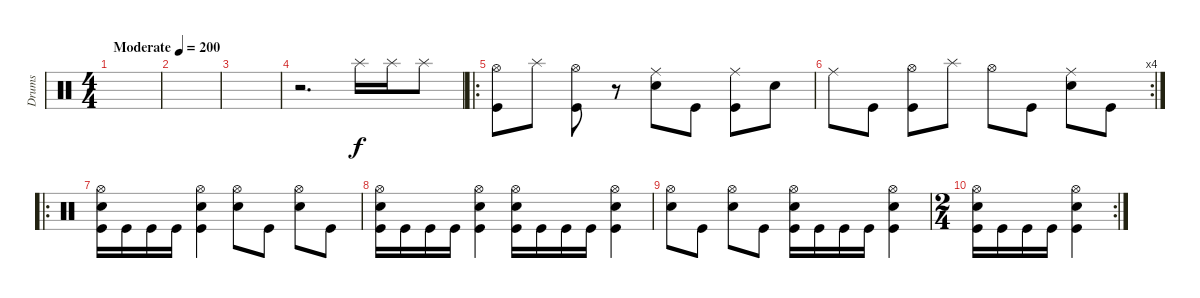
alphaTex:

\track ("Drums" "Drums") {instrument percussion}
\staff {score}
\articulation defaults
\ts (4 4)
\tempo (200 "Moderate")
\clef neutral
\ks c
|
|
|
r.2{d} "Splash (hit)".16 "Splash (hit)".16 "Splash (hit)".8 |
\ro
("Hi-Hat (open)" "Kick (hit)").8 "Splash (hit)".8 ("Hi-Hat (open)" "Kick (hit)").8 r.8 ("Ride (middle)" "Snare (hit) 2").8 "Kick (hit)".8 ("Ride (middle)" "Kick (hit)").8 "Snare (hit) 2".8 |
\rc 4 "Ride (middle)".8 "Kick (hit)".8
("Hi-Hat (open)" "Kick (hit)").8 "Splash (hit)".8 "Hi-Hat (open)".8 "Kick (hit)".8 ("Ride (middle)" "Snare (hit) 2").8 "Kick (hit)".8 |
\ro
("Hi-Hat (open)" "Snare (hit) 2" "Kick (hit)").16 "Kick (hit)".16 "Kick (hit)".16 "Kick (hit)".16 ("Hi-Hat (open)" "Snare (hit) 2" "Kick (hit)").4 ("Hi-Hat (open)" "Snare (hit) 2").8 "Kick (hit)".8 ("Hi-Hat (open)" "Snare (hit) 2").8 "Kick (hit)".8 |
("Hi-Hat (open)" "Snare (hit) 2" "Kick (hit)").16 "Kick (hit)".16 "Kick (hit)".16 "Kick (hit)".16 ("Hi-Hat (open)" "Snare (hit) 2" "Kick (hit)").4 ("Hi-Hat (open)" "Snare (hit) 2" "Kick (hit)").16 "Kick (hit)".16 "Kick (hit)".16 "Kick (hit)".16 ("Hi-Hat (open)" "Snare (hit) 2" "Kick (hit)").4 |
("Hi-Hat (open)" "Snare (hit) 2").8 "Kick (hit)".8 ("Hi-Hat (open)" "Snare (hit) 2").8 "Kick (hit)".8 ("Hi-Hat (open)" "Snare (hit) 2" "Kick (hit)").16 "Kick (hit)".16 "Kick (hit)".16 "Kick (hit)".16 ("Hi-Hat (open)" "Snare (hit) 2" "Kick (hit)").4 |
\rc 2
\ts (2 4)
("Hi-Hat (open)" "Snare (hit) 2" "Kick (hit)").16 "Kick (hit)".16 "Kick (hit)".16 "Kick (hit)".16 ("Hi-Hat (open)" "Snare (hit) 2" "Kick (hit)").4
